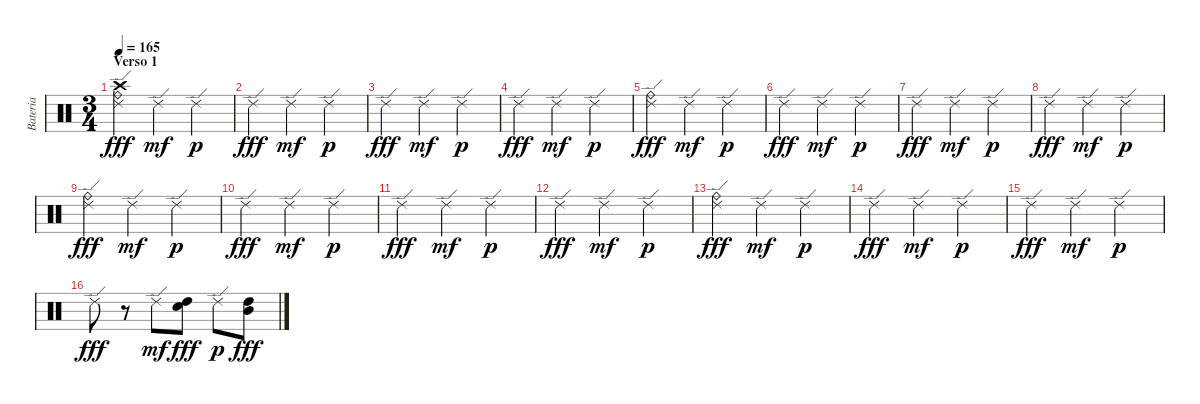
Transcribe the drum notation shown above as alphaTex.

\track ("Bateria" "Bateria") {instrument percussion}
\staff {score}
\articulation defaults
\ts (3 4)
\section ("" "Verso 1")
\tempo 165
\clef neutral
\ks c
("Crash high (hit)" "Ride (edge) 2" "Ride (bell)").4{dy fff} "Ride (edge) 2".4{dy mf} "Ride (edge) 2".4{dy p} |
"Ride (edge) 2".4{dy fff} "Ride (edge) 2".4{dy mf} "Ride (edge) 2".4{dy p} |
"Ride (edge) 2".4{dy fff} "Ride (edge) 2".4{dy mf} "Ride (edge) 2".4{dy p} |
"Ride (edge) 2".4{dy fff} "Ride (edge) 2".4{dy mf} "Ride (edge) 2".4{dy p} |
("Ride (edge) 2" "Ride (bell)").4{dy fff} "Ride (edge) 2".4{dy mf} "Ride (edge) 2".4{dy p} |
"Ride (edge) 2".4{dy fff} "Ride (edge) 2".4{dy mf} "Ride (edge) 2".4{dy p} |
"Ride (edge) 2".4{dy fff} "Ride (edge) 2".4{dy mf} "Ride (edge) 2".4{dy p} |
"Ride (edge) 2".4{dy fff} "Ride (edge) 2".4{dy mf} "Ride (edge) 2".4{dy p} |
("Ride (edge) 2" "Ride (bell)").4{dy fff} "Ride (edge) 2".4{dy mf} "Ride (edge) 2".4{dy p} |
"Ride (edge) 2".4{dy fff} "Ride (edge) 2".4{dy mf} "Ride (edge) 2".4{dy p} |
"Ride (edge) 2".4{dy fff} "Ride (edge) 2".4{dy mf} "Ride (edge) 2".4{dy p} |
"Ride (edge) 2".4{dy fff} "Ride (edge) 2".4{dy mf} "Ride (edge) 2".4{dy p} |
("Ride (edge) 2" "Ride (bell)").4{dy fff} "Ride (edge) 2".4{dy mf} "Ride (edge) 2".4{dy p} |
"Ride (edge) 2".4{dy fff} "Ride (edge) 2".4{dy mf} "Ride (edge) 2".4{dy p} |
"Ride (edge) 2".4{dy fff} "Ride (edge) 2".4{dy mf} "Ride (edge) 2".4{dy p} |
"Ride (edge) 2".8{dy fff} r.8 "Ride (edge) 2".8{dy mf} ("High Tom (hit)" "Snare (hit) 2").8{dy fff} "Ride (edge) 2".8{dy p} ("Mid Tom (hit)" "High Tom (hit)").8{dy fff}
